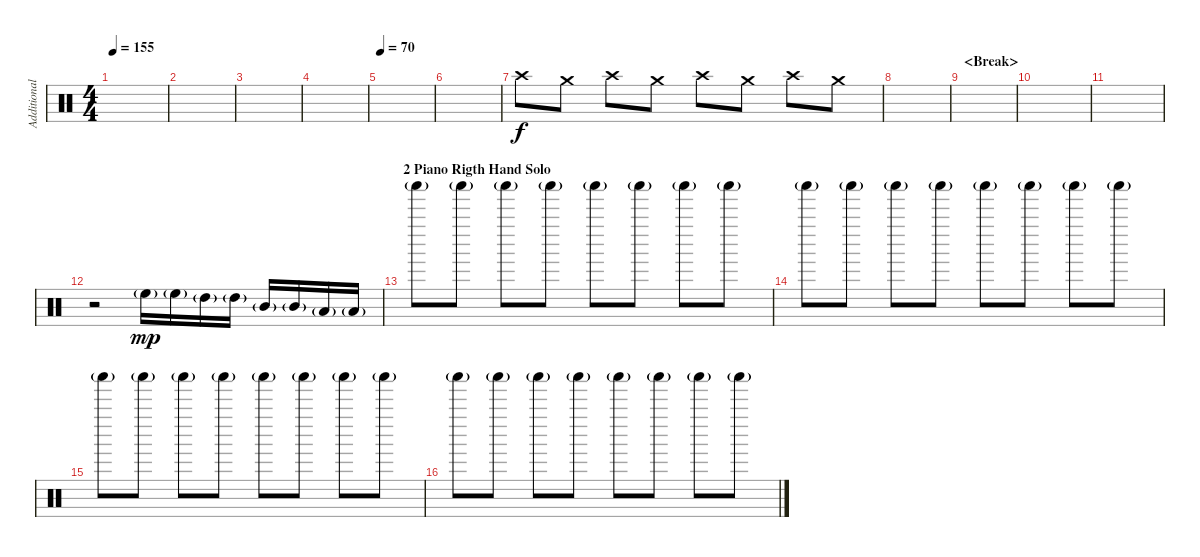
\track ("Additional Drums" "Additional") {instrument percussion}
\staff {score}
\articulation defaults
\ts (4 4)
\tempo 155
\clef neutral
\ks c
|
|
|
|
\tempo 70
|
|
"Crash high (hit)".8{dy f} "Crash medium (hit)".8 "Crash high (hit)".8 "Crash medium (hit)".8 "Crash high (hit)".8 "Crash medium (hit)".8 "Crash high (hit)".8 "Crash medium (hit)".8 |
|
\section ("" "<Break>")
|
|
|
r.2 "High Floor Tom (hit)"{g}.16{dy mp} "High Floor Tom (hit)"{g}.16 "High Tom (hit)"{g}.16 "High Tom (hit)"{g}.16 "Mid Tom (hit)"{g}.16 "Mid Tom (hit)"{g}.16 "Low Tom (hit)"{g}.16 "Low Tom (hit)"{g}.16 |
\section ("" "2 Piano Rigth Hand Solo")
"Shaker (hit)"{g}.8 "Shaker (hit)"{g}.8 "Shaker (hit)"{g}.8 "Shaker (hit)"{g}.8 "Shaker (hit)"{g}.8 "Shaker (hit)"{g}.8 "Shaker (hit)"{g}.8 "Shaker (hit)"{g}.8 |
"Shaker (hit)"{g}.8 "Shaker (hit)"{g}.8 "Shaker (hit)"{g}.8 "Shaker (hit)"{g}.8 "Shaker (hit)"{g}.8 "Shaker (hit)"{g}.8 "Shaker (hit)"{g}.8 "Shaker (hit)"{g}.8 |
"Shaker (hit)"{g}.8 "Shaker (hit)"{g}.8 "Shaker (hit)"{g}.8 "Shaker (hit)"{g}.8 "Shaker (hit)"{g}.8 "Shaker (hit)"{g}.8 "Shaker (hit)"{g}.8 "Shaker (hit)"{g}.8 |
"Shaker (hit)"{g}.8 "Shaker (hit)"{g}.8 "Shaker (hit)"{g}.8 "Shaker (hit)"{g}.8 "Shaker (hit)"{g}.8 "Shaker (hit)"{g}.8 "Shaker (hit)"{g}.8 "Shaker (hit)"{g}.8
